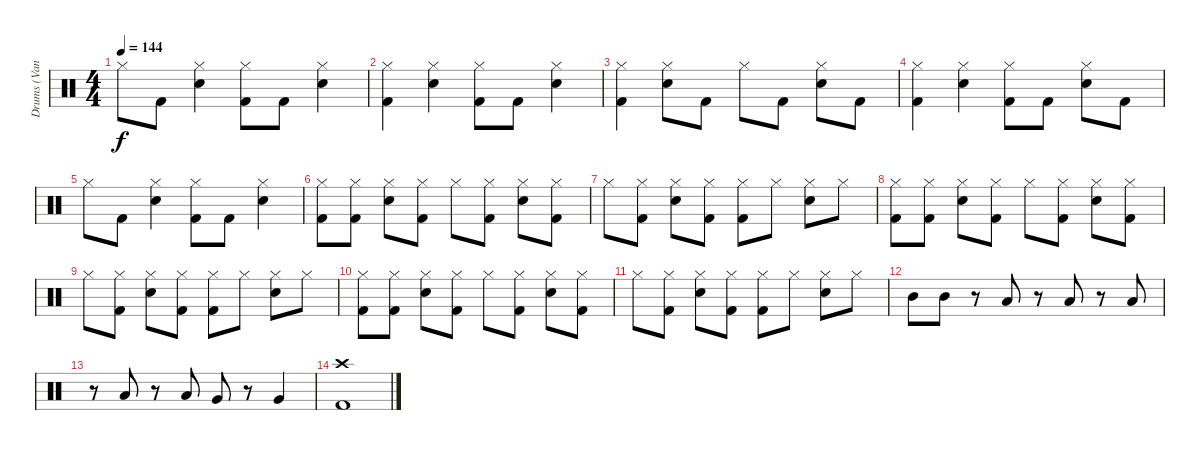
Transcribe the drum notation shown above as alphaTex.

\track ("Drums (Vandel)" "Drums (Van") {instrument percussion}
\staff {score}
\articulation defaults
\ts (4 4)
\tempo 144
\clef neutral
\ks c "Hi-Hat (closed)".8{dy f} "Kick (hit) 2".8
("Hi-Hat (closed)" "Snare (hit) 2").4 ("Hi-Hat (closed)" "Kick (hit) 2").8 "Kick (hit) 2".8 ("Hi-Hat (closed)" "Snare (hit) 2").4 |
("Hi-Hat (closed)" "Kick (hit) 2").4 ("Hi-Hat (closed)" "Snare (hit) 2").4 ("Hi-Hat (closed)" "Kick (hit) 2").8 "Kick (hit) 2".8 ("Hi-Hat (closed)" "Snare (hit) 2").4 |
("Hi-Hat (closed)" "Kick (hit) 2").4 ("Hi-Hat (closed)" "Snare (hit) 2").8 "Kick (hit) 2".8 "Hi-Hat (closed)".8 "Kick (hit) 2".8 ("Hi-Hat (closed)" "Snare (hit) 2").8 "Kick (hit) 2".8 |
("Hi-Hat (closed)" "Kick (hit) 2").4 ("Hi-Hat (closed)" "Snare (hit) 2").4 ("Hi-Hat (closed)" "Kick (hit) 2").8 "Kick (hit) 2".8 ("Hi-Hat (closed)" "Snare (hit) 2").8 "Kick (hit) 2".8 |
"Hi-Hat (closed)".8 "Kick (hit) 2".8 ("Hi-Hat (closed)" "Snare (hit) 2").4 ("Hi-Hat (closed)" "Kick (hit) 2").8 "Kick (hit) 2".8 ("Hi-Hat (closed)" "Snare (hit) 2").4 |
("Hi-Hat (closed)" "Kick (hit) 2").8 ("Hi-Hat (closed)" "Kick (hit) 2").8 ("Hi-Hat (closed)" "Snare (hit) 2").8 ("Hi-Hat (closed)" "Kick (hit) 2").8 "Hi-Hat (closed)".8 ("Hi-Hat (closed)" "Kick (hit) 2").8 ("Hi-Hat (closed)" "Snare (hit) 2").8 ("Hi-Hat (closed)" "Kick (hit) 2").8 |
"Hi-Hat (closed)".8 ("Hi-Hat (closed)" "Kick (hit) 2").8 ("Hi-Hat (closed)" "Snare (hit) 2").8 ("Hi-Hat (closed)" "Kick (hit) 2").8 ("Hi-Hat (closed)" "Kick (hit) 2").8 "Hi-Hat (closed)".8 ("Hi-Hat (closed)" "Snare (hit) 2").8 "Hi-Hat (closed)".8 |
("Hi-Hat (closed)" "Kick (hit) 2").8 ("Hi-Hat (closed)" "Kick (hit) 2").8 ("Hi-Hat (closed)" "Snare (hit) 2").8 ("Hi-Hat (closed)" "Kick (hit) 2").8 "Hi-Hat (closed)".8 ("Hi-Hat (closed)" "Kick (hit) 2").8 ("Hi-Hat (closed)" "Snare (hit) 2").8 ("Hi-Hat (closed)" "Kick (hit) 2").8 |
"Hi-Hat (closed)".8 ("Hi-Hat (closed)" "Kick (hit) 2").8 ("Hi-Hat (closed)" "Snare (hit) 2").8 ("Hi-Hat (closed)" "Kick (hit) 2").8 ("Hi-Hat (closed)" "Kick (hit) 2").8 "Hi-Hat (closed)".8 ("Hi-Hat (closed)" "Snare (hit) 2").8 "Hi-Hat (closed)".8 |
("Hi-Hat (closed)" "Kick (hit) 2").8 ("Hi-Hat (closed)" "Kick (hit) 2").8 ("Hi-Hat (closed)" "Snare (hit) 2").8 ("Hi-Hat (closed)" "Kick (hit) 2").8 "Hi-Hat (closed)".8 ("Hi-Hat (closed)" "Kick (hit) 2").8 ("Hi-Hat (closed)" "Snare (hit) 2").8 ("Hi-Hat (closed)" "Kick (hit) 2").8 |
"Hi-Hat (closed)".8 ("Hi-Hat (closed)" "Kick (hit) 2").8 ("Hi-Hat (closed)" "Snare (hit) 2").8 ("Hi-Hat (closed)" "Kick (hit) 2").8 ("Hi-Hat (closed)" "Kick (hit) 2").8 "Hi-Hat (closed)".8 ("Hi-Hat (closed)" "Snare (hit) 2").8 "Hi-Hat (closed)".8 |
"Mid Tom (hit)".8 "Mid Tom (hit)".8 r.8 "Low Tom (hit)".8 r.8 "Low Tom (hit)".8 r.8 "Low Tom (hit)".8 |
r.8 "Low Tom (hit)".8 r.8 "Low Tom (hit)".8 "Very Low Tom (hit)".8 r.8 "Very Low Tom (hit)".4 |
("Crash high (hit)" "Kick (hit) 2").1
